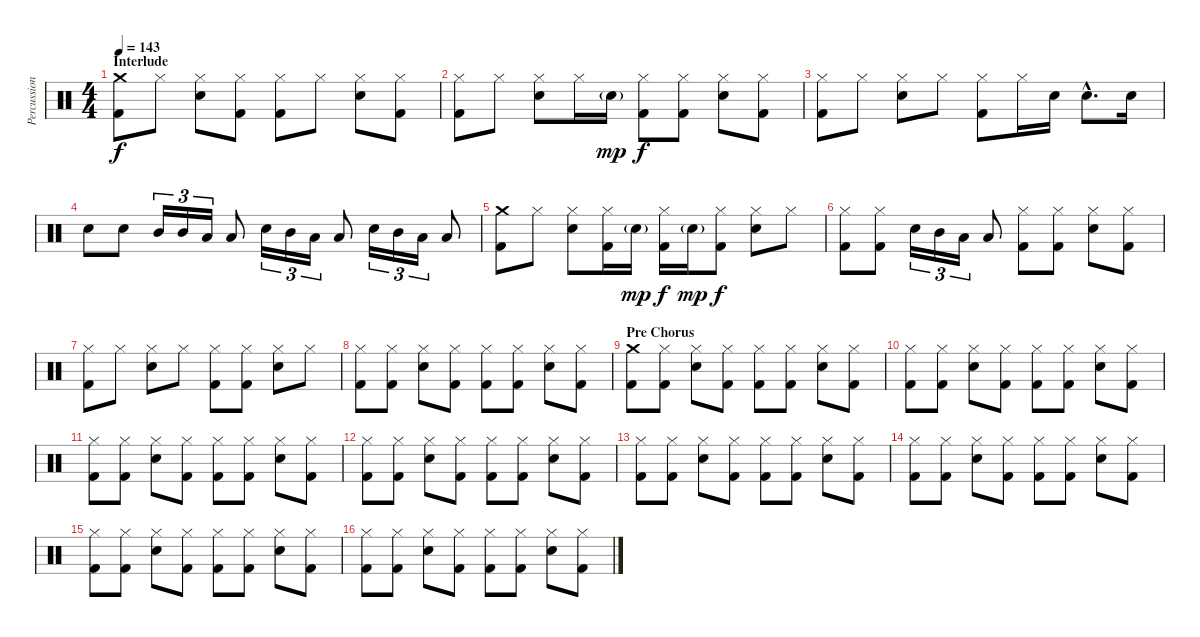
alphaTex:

\track ("Percussion" "Percussion") {instrument percussion}
\staff {score}
\articulation defaults
\ts (4 4)
\section ("" "Interlude")
\tempo 143
\clef neutral
\ks c
("Crash medium (hit)" "Kick (hit) 2").8{dy f} "Hi-Hat (closed)".8 ("Hi-Hat (closed)" "Electric Snare (hit)").8 ("Hi-Hat (closed)" "Kick (hit) 2").8 ("Hi-Hat (closed)" "Kick (hit) 2").8 "Hi-Hat (closed)".8 ("Hi-Hat (closed)" "Electric Snare (hit)").8 ("Hi-Hat (closed)" "Kick (hit) 2").8 |
("Hi-Hat (closed)" "Kick (hit) 2").8 "Hi-Hat (closed)".8 ("Hi-Hat (closed)" "Electric Snare (hit)").8 "Hi-Hat (closed)".16 "Electric Snare (hit)"{g}.16{dy mp} ("Hi-Hat (closed)" "Kick (hit) 2").8{dy f} ("Hi-Hat (closed)" "Kick (hit) 2").8 ("Hi-Hat (closed)" "Electric Snare (hit)").8 ("Hi-Hat (closed)" "Kick (hit) 2").8 |
("Hi-Hat (closed)" "Kick (hit) 2").8 "Hi-Hat (closed)".8 ("Hi-Hat (closed)" "Electric Snare (hit)").8 "Hi-Hat (closed)".8 ("Hi-Hat (closed)" "Kick (hit) 2").8 "Hi-Hat (closed)".16 "Electric Snare (hit)".16 "Electric Snare (hit)"{hac}.8{d} "Electric Snare (hit)".16 |
"Electric Snare (hit)".8 "Electric Snare (hit)".8 "Mid Tom (hit)".16{tu (3 2)} "Mid Tom (hit)".16{tu (3 2)} "Low Tom (hit)".16{tu (3 2)} "Low Floor Tom (hit)".8 "Electric Snare (hit)".16{tu (3 2)} "Mid Tom (hit)".16{tu (3 2)} "Low Tom (hit)".16{tu (3 2)} "Low Floor Tom (hit)".8 "Electric Snare (hit)".16{tu (3 2)} "Mid Tom (hit)".16{tu (3 2)} "Low Tom (hit)".16{tu (3 2)} "Low Floor Tom (hit)".8 |
("Crash medium (hit)" "Kick (hit) 2").8 "Hi-Hat (closed)".8 ("Hi-Hat (closed)" "Electric Snare (hit)").8 ("Hi-Hat (closed)" "Kick (hit) 2").16 "Electric Snare (hit)"{g}.16{dy mp} ("Hi-Hat (closed)" "Kick (hit) 2").16{dy f} "Electric Snare (hit)"{g}.16{dy mp} ("Hi-Hat (closed)" "Kick (hit) 2").8{dy f} ("Hi-Hat (closed)" "Electric Snare (hit)").8 "Hi-Hat (closed)".8 |
("Hi-Hat (closed)" "Kick (hit) 2").8 ("Hi-Hat (closed)" "Kick (hit) 2").8 "Electric Snare (hit)".16{tu (3 2)} "Mid Tom (hit)".16{tu (3 2)} "Low Tom (hit)".16{tu (3 2)} "Low Floor Tom (hit)".8 ("Hi-Hat (closed)" "Kick (hit) 2").8 ("Hi-Hat (closed)" "Kick (hit) 2").8 ("Hi-Hat (closed)" "Electric Snare (hit)").8 ("Hi-Hat (closed)" "Kick (hit) 2").8 |
("Hi-Hat (closed)" "Kick (hit) 2").8 "Hi-Hat (closed)".8 ("Hi-Hat (closed)" "Electric Snare (hit)").8 "Hi-Hat (closed)".8 ("Hi-Hat (closed)" "Kick (hit) 2").8 ("Hi-Hat (closed)" "Kick (hit) 2").8 ("Hi-Hat (closed)" "Electric Snare (hit)").8 "Hi-Hat (closed)".8 |
("Hi-Hat (closed)" "Kick (hit) 2").8 ("Hi-Hat (closed)" "Kick (hit) 2").8 ("Hi-Hat (closed)" "Electric Snare (hit)").8 ("Hi-Hat (closed)" "Kick (hit) 2").8 ("Hi-Hat (closed)" "Kick (hit) 2").8 ("Hi-Hat (closed)" "Kick (hit) 2").8 ("Hi-Hat (closed)" "Electric Snare (hit)").8 ("Hi-Hat (closed)" "Kick (hit) 2").8 |
\section ("" "Pre Chorus")
("Crash medium (hit)" "Kick (hit) 2").8 ("Hi-Hat (closed)" "Kick (hit) 2").8 ("Hi-Hat (closed)" "Electric Snare (hit)").8 ("Hi-Hat (closed)" "Kick (hit) 2").8 ("Hi-Hat (closed)" "Kick (hit) 2").8 ("Hi-Hat (closed)" "Kick (hit) 2").8 ("Hi-Hat (closed)" "Electric Snare (hit)").8 ("Hi-Hat (closed)" "Kick (hit) 2").8 |
("Hi-Hat (closed)" "Kick (hit) 2").8 ("Hi-Hat (closed)" "Kick (hit) 2").8 ("Hi-Hat (closed)" "Electric Snare (hit)").8 ("Hi-Hat (closed)" "Kick (hit) 2").8 ("Hi-Hat (closed)" "Kick (hit) 2").8 ("Hi-Hat (closed)" "Kick (hit) 2").8 ("Hi-Hat (closed)" "Electric Snare (hit)").8 ("Hi-Hat (closed)" "Kick (hit) 2").8 |
("Hi-Hat (closed)" "Kick (hit) 2").8 ("Hi-Hat (closed)" "Kick (hit) 2").8 ("Hi-Hat (closed)" "Electric Snare (hit)").8 ("Hi-Hat (closed)" "Kick (hit) 2").8 ("Hi-Hat (closed)" "Kick (hit) 2").8 ("Hi-Hat (closed)" "Kick (hit) 2").8 ("Hi-Hat (closed)" "Electric Snare (hit)").8 ("Hi-Hat (closed)" "Kick (hit) 2").8 |
("Hi-Hat (closed)" "Kick (hit) 2").8 ("Hi-Hat (closed)" "Kick (hit) 2").8 ("Hi-Hat (closed)" "Electric Snare (hit)").8 ("Hi-Hat (closed)" "Kick (hit) 2").8 ("Hi-Hat (closed)" "Kick (hit) 2").8 ("Hi-Hat (closed)" "Kick (hit) 2").8 ("Hi-Hat (closed)" "Electric Snare (hit)").8 ("Hi-Hat (closed)" "Kick (hit) 2").8 |
("Hi-Hat (closed)" "Kick (hit) 2").8 ("Hi-Hat (closed)" "Kick (hit) 2").8 ("Hi-Hat (closed)" "Electric Snare (hit)").8 ("Hi-Hat (closed)" "Kick (hit) 2").8 ("Hi-Hat (closed)" "Kick (hit) 2").8 ("Hi-Hat (closed)" "Kick (hit) 2").8 ("Hi-Hat (closed)" "Electric Snare (hit)").8 ("Hi-Hat (closed)" "Kick (hit) 2").8 |
("Hi-Hat (closed)" "Kick (hit) 2").8 ("Hi-Hat (closed)" "Kick (hit) 2").8 ("Hi-Hat (closed)" "Electric Snare (hit)").8 ("Hi-Hat (closed)" "Kick (hit) 2").8 ("Hi-Hat (closed)" "Kick (hit) 2").8 ("Hi-Hat (closed)" "Kick (hit) 2").8 ("Hi-Hat (closed)" "Electric Snare (hit)").8 ("Hi-Hat (closed)" "Kick (hit) 2").8 |
("Hi-Hat (closed)" "Kick (hit) 2").8 ("Hi-Hat (closed)" "Kick (hit) 2").8 ("Hi-Hat (closed)" "Electric Snare (hit)").8 ("Hi-Hat (closed)" "Kick (hit) 2").8 ("Hi-Hat (closed)" "Kick (hit) 2").8 ("Hi-Hat (closed)" "Kick (hit) 2").8 ("Hi-Hat (closed)" "Electric Snare (hit)").8 ("Hi-Hat (closed)" "Kick (hit) 2").8 |
("Hi-Hat (closed)" "Kick (hit) 2").8 ("Hi-Hat (closed)" "Kick (hit) 2").8 ("Hi-Hat (closed)" "Electric Snare (hit)").8 ("Hi-Hat (closed)" "Kick (hit) 2").8 ("Hi-Hat (closed)" "Kick (hit) 2").8 ("Hi-Hat (closed)" "Kick (hit) 2").8 ("Hi-Hat (closed)" "Electric Snare (hit)").8 ("Hi-Hat (closed)" "Kick (hit) 2").8
